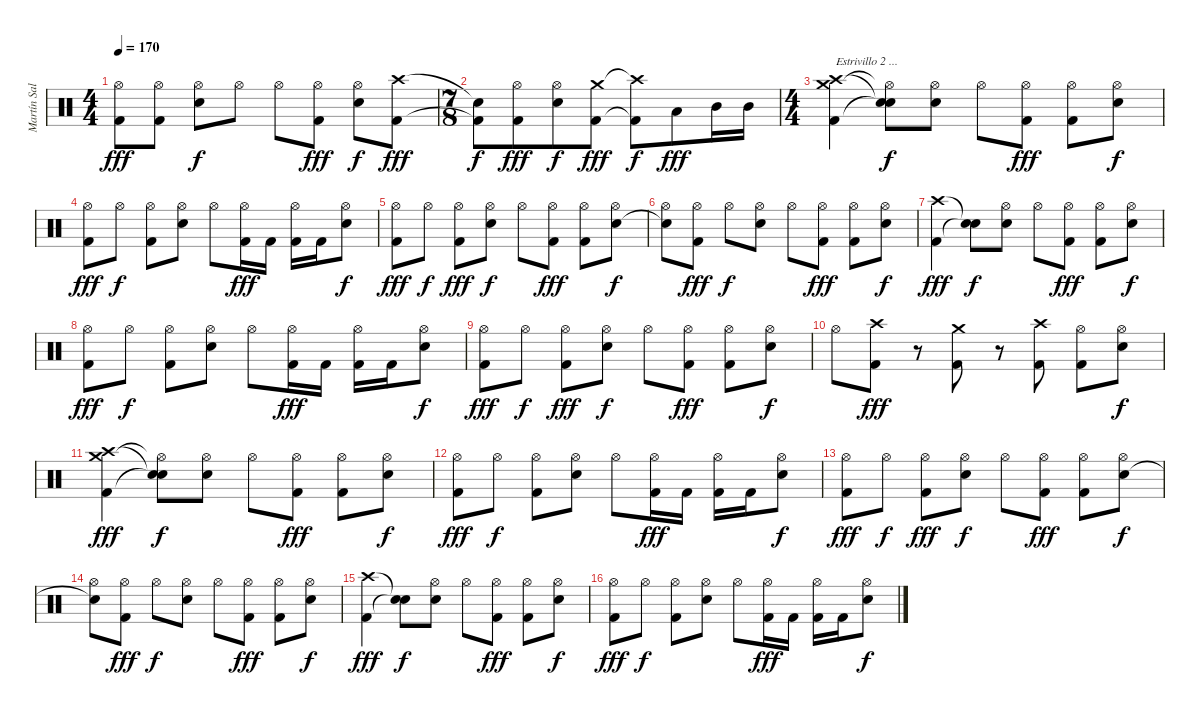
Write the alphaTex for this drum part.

\track ("Martín Salariato" "Martín Sal") {instrument percussion}
\staff {score}
\articulation defaults
\ts (4 4)
\tempo 170
\clef neutral
\ks c
("Hi-Hat (open)" "Kick (hit) 2").8{dy fff} ("Hi-Hat (open)" "Kick (hit) 2").8 ("Hi-Hat (open)" "Snare (hit) 2").8{dy f} "Hi-Hat (open)".8 "Hi-Hat (open)".8 ("Hi-Hat (open)" "Kick (hit) 2").8{dy fff} ("Hi-Hat (open)" "Snare (hit) 2").8{dy f} ("Crash high (hit)" "Kick (hit) 2").8{dy fff} |
\ts (7 8)
("Snare (hit)"{t} "Kick (hit) 2"{t}).8{dy f} ("Hi-Hat (open)" "Kick (hit) 2").8{dy fff} ("Hi-Hat (open)" "Snare (hit) 2").8{dy f} ("Crash medium (hit)" "Kick (hit) 2").8{dy fff} ("Crash high (hit)"{t} "Kick (hit) 2"{t}).8{dy f} "Low Tom (hit)".8{dy fff} "Mid Tom (hit)".16 "Mid Tom (hit)".16 |
\ts (4 4)
("Crash medium (hit)" "Crash high (hit)" "Kick (hit) 2").4{txt "Estrivillo 2 ..."} ("Hi-Hat (open)"{t} "Snare (hit)"{t} "Snare (hit)"{t}).8{dy f} ("Hi-Hat (open)" "Snare (hit) 2").8 "Hi-Hat (open)".8 ("Hi-Hat (open)" "Kick (hit) 2").8{dy fff} ("Hi-Hat (open)" "Kick (hit) 2").8 ("Hi-Hat (open)" "Snare (hit) 2").8{dy f} |
("Hi-Hat (open)" "Kick (hit) 2").8{dy fff} "Hi-Hat (open)".8{dy f} ("Hi-Hat (open)" "Kick (hit) 2").8 ("Hi-Hat (open)" "Snare (hit) 2").8 "Hi-Hat (open)".8 ("Hi-Hat (open)" "Kick (hit) 2").16{dy fff} "Kick (hit) 2".16 ("Hi-Hat (open)" "Kick (hit) 2").16 "Kick (hit) 2".16 ("Hi-Hat (open)" "Snare (hit) 2").8{dy f} |
("Hi-Hat (open)" "Kick (hit) 2").8{dy fff} "Hi-Hat (open)".8{dy f} ("Hi-Hat (open)" "Kick (hit) 2").8{dy fff} ("Hi-Hat (open)" "Snare (hit) 2").8{dy f} "Hi-Hat (open)".8 ("Hi-Hat (open)" "Kick (hit) 2").8{dy fff} ("Hi-Hat (open)" "Kick (hit) 2").8 ("Hi-Hat (open)" "Snare (hit) 2").8{dy f} |
("Hi-Hat (open)" "Snare (hit)"{t}).8 ("Hi-Hat (open)" "Kick (hit) 2").8{dy fff} "Hi-Hat (open)".8{dy f} ("Hi-Hat (open)" "Snare (hit) 2").8 "Hi-Hat (open)".8 ("Hi-Hat (open)" "Kick (hit) 2").8{dy fff} ("Hi-Hat (open)" "Kick (hit) 2").8 ("Hi-Hat (open)" "Snare (hit) 2").8{dy f} |
("Crash high (hit)" "Kick (hit) 2").4{dy fff} ("Snare (hit)"{t} "Snare (hit)"{t}).8{dy f} ("Hi-Hat (open)" "Snare (hit) 2").8 "Hi-Hat (open)".8 ("Hi-Hat (open)" "Kick (hit) 2").8{dy fff} ("Hi-Hat (open)" "Kick (hit) 2").8 ("Hi-Hat (open)" "Snare (hit) 2").8{dy f} |
("Hi-Hat (open)" "Kick (hit) 2").8{dy fff} "Hi-Hat (open)".8{dy f} ("Hi-Hat (open)" "Kick (hit) 2").8 ("Hi-Hat (open)" "Snare (hit) 2").8 "Hi-Hat (open)".8 ("Hi-Hat (open)" "Kick (hit) 2").16{dy fff} "Kick (hit) 2".16 ("Hi-Hat (open)" "Kick (hit) 2").16 "Kick (hit) 2".16 ("Hi-Hat (open)" "Snare (hit) 2").8{dy f} |
("Hi-Hat (open)" "Kick (hit) 2").8{dy fff} "Hi-Hat (open)".8{dy f} ("Hi-Hat (open)" "Kick (hit) 2").8{dy fff} ("Hi-Hat (open)" "Snare (hit) 2").8{dy f} "Hi-Hat (open)".8 ("Hi-Hat (open)" "Kick (hit) 2").8{dy fff} ("Hi-Hat (open)" "Kick (hit) 2").8 ("Hi-Hat (open)" "Snare (hit) 2").8{dy f} |
"Hi-Hat (open)".8 ("Crash high (hit)" "Kick (hit) 2").8{dy fff} r.8 ("Crash medium (hit)" "Kick (hit) 2").8 r.8 ("Crash high (hit)" "Kick (hit) 2").8 ("Hi-Hat (open)" "Kick (hit) 2").8 ("Hi-Hat (open)" "Snare (hit) 2").8{dy f} |
("Crash medium (hit)" "Crash high (hit)" "Kick (hit) 2").4{dy fff} ("Hi-Hat (open)"{t} "Snare (hit)"{t} "Snare (hit)"{t}).8{dy f} ("Hi-Hat (open)" "Snare (hit) 2").8 "Hi-Hat (open)".8 ("Hi-Hat (open)" "Kick (hit) 2").8{dy fff} ("Hi-Hat (open)" "Kick (hit) 2").8 ("Hi-Hat (open)" "Snare (hit) 2").8{dy f} |
("Hi-Hat (open)" "Kick (hit) 2").8{dy fff} "Hi-Hat (open)".8{dy f} ("Hi-Hat (open)" "Kick (hit) 2").8 ("Hi-Hat (open)" "Snare (hit) 2").8 "Hi-Hat (open)".8 ("Hi-Hat (open)" "Kick (hit) 2").16{dy fff} "Kick (hit) 2".16 ("Hi-Hat (open)" "Kick (hit) 2").16 "Kick (hit) 2".16 ("Hi-Hat (open)" "Snare (hit) 2").8{dy f} |
("Hi-Hat (open)" "Kick (hit) 2").8{dy fff} "Hi-Hat (open)".8{dy f} ("Hi-Hat (open)" "Kick (hit) 2").8{dy fff} ("Hi-Hat (open)" "Snare (hit) 2").8{dy f} "Hi-Hat (open)".8 ("Hi-Hat (open)" "Kick (hit) 2").8{dy fff} ("Hi-Hat (open)" "Kick (hit) 2").8 ("Hi-Hat (open)" "Snare (hit) 2").8{dy f} |
("Hi-Hat (open)" "Snare (hit)"{t}).8 ("Hi-Hat (open)" "Kick (hit) 2").8{dy fff} "Hi-Hat (open)".8{dy f} ("Hi-Hat (open)" "Snare (hit) 2").8 "Hi-Hat (open)".8 ("Hi-Hat (open)" "Kick (hit) 2").8{dy fff} ("Hi-Hat (open)" "Kick (hit) 2").8 ("Hi-Hat (open)" "Snare (hit) 2").8{dy f} |
("Crash high (hit)" "Kick (hit) 2").4{dy fff} ("Snare (hit)"{t} "Snare (hit)"{t}).8{dy f} ("Hi-Hat (open)" "Snare (hit) 2").8 "Hi-Hat (open)".8 ("Hi-Hat (open)" "Kick (hit) 2").8{dy fff} ("Hi-Hat (open)" "Kick (hit) 2").8 ("Hi-Hat (open)" "Snare (hit) 2").8{dy f} |
("Hi-Hat (open)" "Kick (hit) 2").8{dy fff} "Hi-Hat (open)".8{dy f} ("Hi-Hat (open)" "Kick (hit) 2").8 ("Hi-Hat (open)" "Snare (hit) 2").8 "Hi-Hat (open)".8 ("Hi-Hat (open)" "Kick (hit) 2").16{dy fff} "Kick (hit) 2".16 ("Hi-Hat (open)" "Kick (hit) 2").16 "Kick (hit) 2".16 ("Hi-Hat (open)" "Snare (hit) 2").8{dy f}
